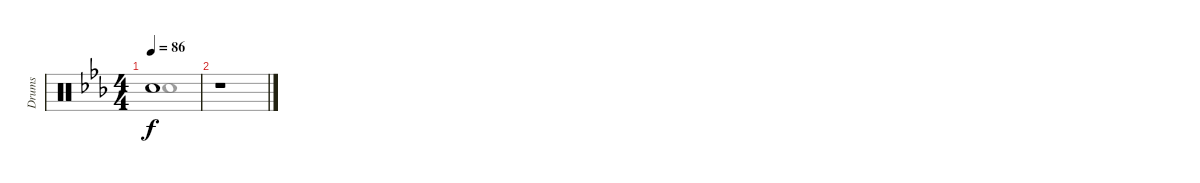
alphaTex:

\track ("Drums" "Drums") {instrument percussion}
\staff {score}
\articulation defaults
\voice
\ts (4 4)
\tempo 86
\clef neutral
\ks eb "Snare (hit)"{t}.1{dy f}
|
r.1
\voice
\clef neutral
\ottava regular
\simile none
\ks eb "Snare (hit)"{t}.1{dy f}
|
r.1
